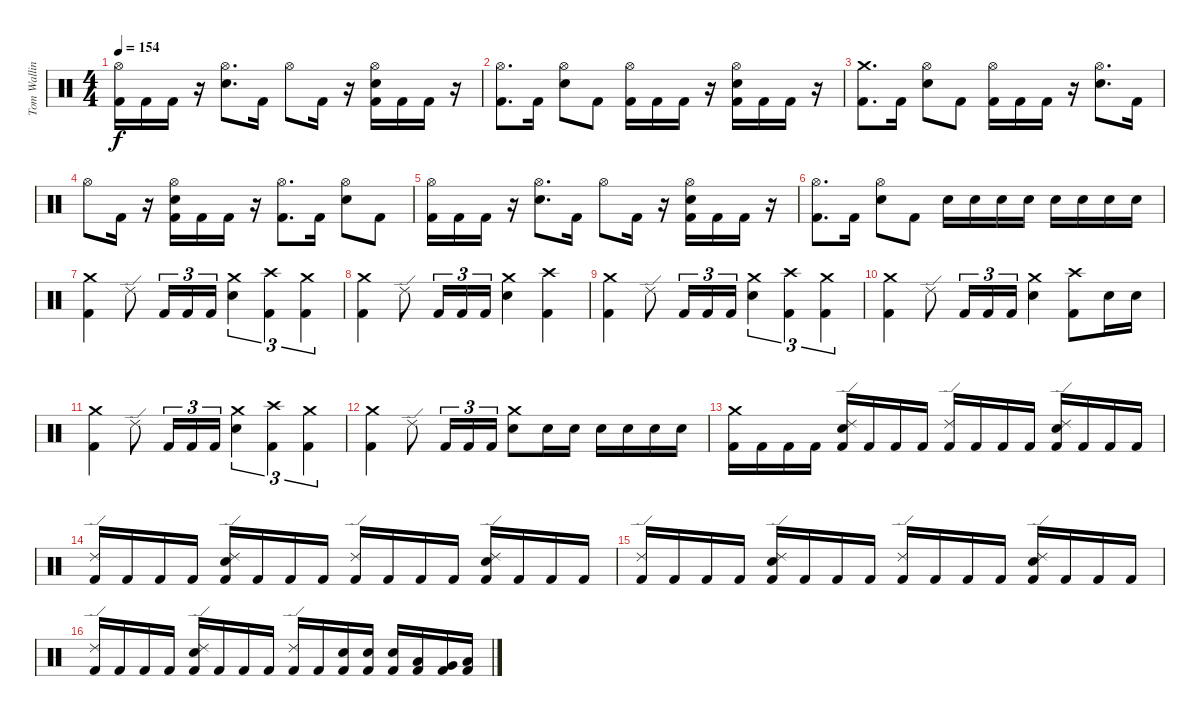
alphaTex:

\track ("Tom Walling" "Tom Wallin") {instrument percussion}
\staff {score}
\articulation defaults
\ts (4 4)
\tempo 154
\clef neutral
\ks c
("Hi-Hat (open)" "Kick (hit) 2").16{dy f} "Kick (hit) 2".16 "Kick (hit) 2".16 r.16 ("Hi-Hat (open)" "Electric Snare (hit)").8{d} "Kick (hit) 2".16 "Hi-Hat (open)".8 "Kick (hit) 2".16 r.16 ("Hi-Hat (open)" "Kick (hit) 2" "Electric Snare (hit)").16 "Kick (hit) 2".16 "Kick (hit) 2".16 r.16 |
("Hi-Hat (open)" "Kick (hit) 2").8{d} "Kick (hit) 2".16 ("Hi-Hat (open)" "Electric Snare (hit)").8 "Kick (hit) 2".8 ("Kick (hit) 2" "Hi-Hat (open)").16 "Kick (hit) 2".16 "Kick (hit) 2".16 r.16 ("Kick (hit) 2" "Electric Snare (hit)" "Hi-Hat (open)").16 "Kick (hit) 2".16 "Kick (hit) 2".16 r.16 |
("Crash medium (hit)" "Kick (hit) 2").8{d} "Kick (hit) 2".16 ("Hi-Hat (open)" "Electric Snare (hit)").8 "Kick (hit) 2".8 ("Hi-Hat (open)" "Kick (hit) 2").16 "Kick (hit) 2".16 "Kick (hit) 2".16 r.16 ("Hi-Hat (open)" "Electric Snare (hit)").8{d} "Kick (hit) 2".16 |
"Hi-Hat (open)".8 "Kick (hit) 2".16 r.16 ("Electric Snare (hit)" "Kick (hit) 2" "Hi-Hat (open)").16 "Kick (hit) 2".16 "Kick (hit) 2".16 r.16 ("Kick (hit) 2" "Hi-Hat (open)").8{d} "Kick (hit) 2".16 ("Electric Snare (hit)" "Hi-Hat (open)").8 "Kick (hit) 2".8 |
("Hi-Hat (open)" "Kick (hit) 2").16 "Kick (hit) 2".16 "Kick (hit) 2".16 r.16 ("Hi-Hat (open)" "Electric Snare (hit)").8{d} "Kick (hit) 2".16 "Hi-Hat (open)".8 "Kick (hit) 2".16 r.16 ("Hi-Hat (open)" "Kick (hit) 2" "Electric Snare (hit)").16 "Kick (hit) 2".16 "Kick (hit) 2".16 r.16 |
("Hi-Hat (open)" "Kick (hit) 2").8{d} "Kick (hit) 2".16 ("Hi-Hat (open)" "Electric Snare (hit)").8 "Kick (hit) 2".8 "Electric Snare (hit)".16 "Electric Snare (hit)".16 "Electric Snare (hit)".16 "Electric Snare (hit)".16 "Electric Snare (hit)".16 "Electric Snare (hit)".16 "Electric Snare (hit)".16 "Electric Snare (hit)".16 |
("Kick (hit) 2" "Crash medium (hit)").4 "Ride (edge) 2".8 "Kick (hit) 2".16{tu (3 2)} "Kick (hit) 2".16{tu (3 2)} "Kick (hit) 2".16{tu (3 2)} ("Electric Snare (hit)" "Crash medium (hit)").4{tu (3 2)} ("Crash high (hit)" "Kick (hit) 2").4{tu (3 2)} ("Crash medium (hit)" "Kick (hit) 2").4{tu (3 2)} |
("Crash medium (hit)" "Kick (hit) 2").4 "Ride (edge) 2".8 "Kick (hit) 2".16{tu (3 2)} "Kick (hit) 2".16{tu (3 2)} "Kick (hit) 2".16{tu (3 2)} ("Crash medium (hit)" "Electric Snare (hit)").4 ("Crash high (hit)" "Kick (hit) 2").4 |
("Kick (hit) 2" "Crash medium (hit)").4 "Ride (edge) 2".8 "Kick (hit) 2".16{tu (3 2)} "Kick (hit) 2".16{tu (3 2)} "Kick (hit) 2".16{tu (3 2)} ("Electric Snare (hit)" "Crash medium (hit)").4{tu (3 2)} ("Crash high (hit)" "Kick (hit) 2").4{tu (3 2)} ("Crash medium (hit)" "Kick (hit) 2").4{tu (3 2)} |
("Crash medium (hit)" "Kick (hit) 2").4 "Ride (edge) 2".8 "Kick (hit) 2".16{tu (3 2)} "Kick (hit) 2".16{tu (3 2)} "Kick (hit) 2".16{tu (3 2)} ("Crash medium (hit)" "Electric Snare (hit)").4 ("Crash high (hit)" "Kick (hit) 2").8 "Electric Snare (hit)".16 "Electric Snare (hit)".16 |
("Kick (hit) 2" "Crash medium (hit)").4 "Ride (edge) 2".8 "Kick (hit) 2".16{tu (3 2)} "Kick (hit) 2".16{tu (3 2)} "Kick (hit) 2".16{tu (3 2)} ("Electric Snare (hit)" "Crash medium (hit)").4{tu (3 2)} ("Crash high (hit)" "Kick (hit) 2").4{tu (3 2)} ("Crash medium (hit)" "Kick (hit) 2").4{tu (3 2)} |
("Crash medium (hit)" "Kick (hit) 2").4 "Ride (edge) 2".8 "Kick (hit) 2".16{tu (3 2)} "Kick (hit) 2".16{tu (3 2)} "Kick (hit) 2".16{tu (3 2)} ("Crash medium (hit)" "Electric Snare (hit)").8 "Electric Snare (hit)".16 "Electric Snare (hit)".16 "Electric Snare (hit)".16 "Electric Snare (hit)".16 "Electric Snare (hit)".16 "Electric Snare (hit)".16 |
("Crash medium (hit)" "Kick (hit) 2").16 "Kick (hit) 2".16 "Kick (hit) 2".16 "Kick (hit) 2".16 ("Ride (edge) 2" "Kick (hit) 2" "Electric Snare (hit)").16 "Kick (hit) 2".16 "Kick (hit) 2".16 "Kick (hit) 2".16 ("Ride (edge) 2" "Kick (hit) 2").16 "Kick (hit) 2".16 "Kick (hit) 2".16 "Kick (hit) 2".16 ("Ride (edge) 2" "Kick (hit) 2" "Electric Snare (hit)").16 "Kick (hit) 2".16 "Kick (hit) 2".16 "Kick (hit) 2".16 |
("Ride (edge) 2" "Kick (hit) 2").16 "Kick (hit) 2".16 "Kick (hit) 2".16 "Kick (hit) 2".16 ("Ride (edge) 2" "Kick (hit) 2" "Electric Snare (hit)").16 "Kick (hit) 2".16 "Kick (hit) 2".16 "Kick (hit) 2".16 ("Ride (edge) 2" "Kick (hit) 2").16 "Kick (hit) 2".16 "Kick (hit) 2".16 "Kick (hit) 2".16 ("Ride (edge) 2" "Kick (hit) 2" "Electric Snare (hit)").16 "Kick (hit) 2".16 "Kick (hit) 2".16 "Kick (hit) 2".16 |
("Ride (edge) 2" "Kick (hit) 2").16 "Kick (hit) 2".16 "Kick (hit) 2".16 "Kick (hit) 2".16 ("Ride (edge) 2" "Kick (hit) 2" "Electric Snare (hit)").16 "Kick (hit) 2".16 "Kick (hit) 2".16 "Kick (hit) 2".16 ("Ride (edge) 2" "Kick (hit) 2").16 "Kick (hit) 2".16 "Kick (hit) 2".16 "Kick (hit) 2".16 ("Ride (edge) 2" "Kick (hit) 2" "Electric Snare (hit)").16 "Kick (hit) 2".16 "Kick (hit) 2".16 "Kick (hit) 2".16 |
("Ride (edge) 2" "Kick (hit) 2").16 "Kick (hit) 2".16 "Kick (hit) 2".16 "Kick (hit) 2".16 ("Ride (edge) 2" "Kick (hit) 2" "Electric Snare (hit)").16 "Kick (hit) 2".16 "Kick (hit) 2".16 "Kick (hit) 2".16 ("Ride (edge) 2" "Kick (hit) 2").16 "Kick (hit) 2".16 ("Electric Snare (hit)" "Kick (hit) 2").16 ("Electric Snare (hit)" "Kick (hit) 2").16 ("Kick (hit) 2" "Electric Snare (hit)").16 ("Low Tom (hit)" "Kick (hit) 2").16 ("Very Low Tom (hit)" "Kick (hit) 2").16 ("Low Floor Tom (hit)" "Kick (hit) 2").16
